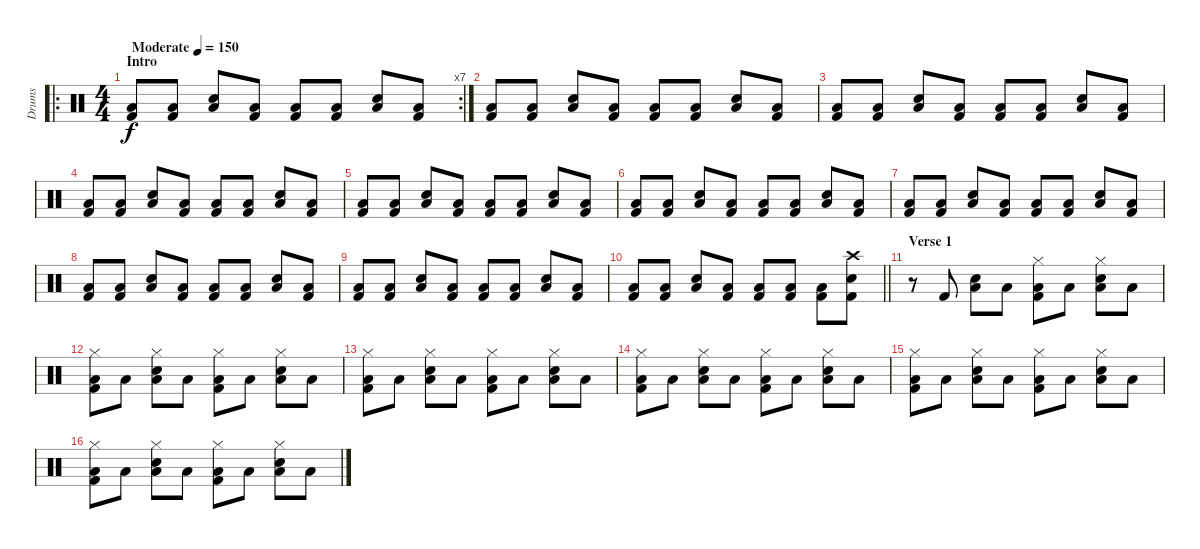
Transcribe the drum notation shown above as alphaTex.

\track ("Drums" "Drums") {instrument percussion}
\staff {score}
\articulation defaults
\ro
\rc 7
\ts (4 4)
\section ("" "Intro")
\tempo (150 "Moderate")
\clef neutral
\ks c
("Low Tom (hit)" "Kick (hit) 2").8{dy f volume 6} ("Low Tom (hit)" "Kick (hit) 2").8 ("Low Tom (hit)" "Electric Snare (hit)").8 ("Low Tom (hit)" "Kick (hit) 2").8 ("Low Tom (hit)" "Kick (hit) 2").8 ("Low Tom (hit)" "Kick (hit) 2").8 ("Low Tom (hit)" "Electric Snare (hit)").8 ("Low Tom (hit)" "Kick (hit) 2").8 |
("Low Tom (hit)" "Kick (hit) 2").8 ("Low Tom (hit)" "Kick (hit) 2").8 ("Low Tom (hit)" "Electric Snare (hit)").8 ("Low Tom (hit)" "Kick (hit) 2").8 ("Low Tom (hit)" "Kick (hit) 2").8 ("Low Tom (hit)" "Kick (hit) 2").8 ("Low Tom (hit)" "Electric Snare (hit)").8 ("Low Tom (hit)" "Kick (hit) 2").8 |
("Low Tom (hit)" "Kick (hit) 2").8 ("Low Tom (hit)" "Kick (hit) 2").8 ("Low Tom (hit)" "Electric Snare (hit)").8 ("Low Tom (hit)" "Kick (hit) 2").8 ("Low Tom (hit)" "Kick (hit) 2").8 ("Low Tom (hit)" "Kick (hit) 2").8 ("Low Tom (hit)" "Electric Snare (hit)").8 ("Low Tom (hit)" "Kick (hit) 2").8 |
("Low Tom (hit)" "Kick (hit) 2").8 ("Low Tom (hit)" "Kick (hit) 2").8 ("Low Tom (hit)" "Electric Snare (hit)").8 ("Low Tom (hit)" "Kick (hit) 2").8 ("Low Tom (hit)" "Kick (hit) 2").8 ("Low Tom (hit)" "Kick (hit) 2").8 ("Low Tom (hit)" "Electric Snare (hit)").8 ("Low Tom (hit)" "Kick (hit) 2").8 |
("Low Tom (hit)" "Kick (hit) 2").8 ("Low Tom (hit)" "Kick (hit) 2").8 ("Low Tom (hit)" "Electric Snare (hit)").8 ("Low Tom (hit)" "Kick (hit) 2").8 ("Low Tom (hit)" "Kick (hit) 2").8 ("Low Tom (hit)" "Kick (hit) 2").8 ("Low Tom (hit)" "Electric Snare (hit)").8 ("Low Tom (hit)" "Kick (hit) 2").8 |
("Low Tom (hit)" "Kick (hit) 2").8 ("Low Tom (hit)" "Kick (hit) 2").8 ("Low Tom (hit)" "Electric Snare (hit)").8 ("Low Tom (hit)" "Kick (hit) 2").8 ("Low Tom (hit)" "Kick (hit) 2").8 ("Low Tom (hit)" "Kick (hit) 2").8 ("Low Tom (hit)" "Electric Snare (hit)").8 ("Low Tom (hit)" "Kick (hit) 2").8 |
("Low Tom (hit)" "Kick (hit) 2").8 ("Low Tom (hit)" "Kick (hit) 2").8 ("Low Tom (hit)" "Electric Snare (hit)").8 ("Low Tom (hit)" "Kick (hit) 2").8 ("Low Tom (hit)" "Kick (hit) 2").8 ("Low Tom (hit)" "Kick (hit) 2").8 ("Low Tom (hit)" "Electric Snare (hit)").8 ("Low Tom (hit)" "Kick (hit) 2").8 |
("Low Tom (hit)" "Kick (hit) 2").8 ("Low Tom (hit)" "Kick (hit) 2").8 ("Low Tom (hit)" "Electric Snare (hit)").8 ("Low Tom (hit)" "Kick (hit) 2").8 ("Low Tom (hit)" "Kick (hit) 2").8 ("Low Tom (hit)" "Kick (hit) 2").8 ("Low Tom (hit)" "Electric Snare (hit)").8 ("Low Tom (hit)" "Kick (hit) 2").8 |
("Low Tom (hit)" "Kick (hit) 2").8 ("Low Tom (hit)" "Kick (hit) 2").8 ("Low Tom (hit)" "Electric Snare (hit)").8 ("Low Tom (hit)" "Kick (hit) 2").8 ("Low Tom (hit)" "Kick (hit) 2").8 ("Low Tom (hit)" "Kick (hit) 2").8 ("Low Tom (hit)" "Electric Snare (hit)").8 ("Low Tom (hit)" "Kick (hit) 2").8 |
\barLineRight lightlight
("Low Tom (hit)" "Kick (hit) 2").8 ("Low Tom (hit)" "Kick (hit) 2").8 ("Low Tom (hit)" "Electric Snare (hit)").8 ("Low Tom (hit)" "Kick (hit) 2").8 ("Low Tom (hit)" "Kick (hit) 2").8 ("Low Tom (hit)" "Kick (hit) 2").8 ("Low Tom (hit)" "Kick (hit) 2").8 ("Crash high (hit)" "Electric Snare (hit)" "Kick (hit) 2").8{volume 13} |
\section ("" "Verse 1")
r.8 "Kick (hit) 2".8 ("Low Tom (hit)" "Electric Snare (hit)").8 "Low Tom (hit)".8 ("Hi-Hat (closed)" "Low Tom (hit)" "Kick (hit) 2").8 "Low Tom (hit)".8 ("Hi-Hat (closed)" "Low Tom (hit)" "Electric Snare (hit)").8 "Low Tom (hit)".8 |
("Hi-Hat (closed)" "Low Tom (hit)" "Kick (hit) 2").8 "Low Tom (hit)".8 ("Hi-Hat (closed)" "Low Tom (hit)" "Electric Snare (hit)").8 "Low Tom (hit)".8 ("Hi-Hat (closed)" "Low Tom (hit)" "Kick (hit) 2").8 "Low Tom (hit)".8 ("Hi-Hat (closed)" "Low Tom (hit)" "Electric Snare (hit)").8 "Low Tom (hit)".8 |
("Hi-Hat (closed)" "Low Tom (hit)" "Kick (hit) 2").8 "Low Tom (hit)".8 ("Hi-Hat (closed)" "Low Tom (hit)" "Electric Snare (hit)").8 "Low Tom (hit)".8 ("Hi-Hat (closed)" "Low Tom (hit)" "Kick (hit) 2").8 "Low Tom (hit)".8 ("Hi-Hat (closed)" "Low Tom (hit)" "Electric Snare (hit)").8 "Low Tom (hit)".8 |
("Hi-Hat (closed)" "Low Tom (hit)" "Kick (hit) 2").8 "Low Tom (hit)".8 ("Hi-Hat (closed)" "Low Tom (hit)" "Electric Snare (hit)").8 "Low Tom (hit)".8 ("Hi-Hat (closed)" "Low Tom (hit)" "Kick (hit) 2").8 "Low Tom (hit)".8 ("Hi-Hat (closed)" "Low Tom (hit)" "Electric Snare (hit)").8 "Low Tom (hit)".8 |
("Hi-Hat (closed)" "Low Tom (hit)" "Kick (hit) 2").8 "Low Tom (hit)".8 ("Hi-Hat (closed)" "Low Tom (hit)" "Electric Snare (hit)").8 "Low Tom (hit)".8 ("Hi-Hat (closed)" "Low Tom (hit)" "Kick (hit) 2").8 "Low Tom (hit)".8 ("Hi-Hat (closed)" "Low Tom (hit)" "Electric Snare (hit)").8 "Low Tom (hit)".8 |
("Hi-Hat (closed)" "Low Tom (hit)" "Kick (hit) 2").8 "Low Tom (hit)".8 ("Hi-Hat (closed)" "Low Tom (hit)" "Electric Snare (hit)").8 "Low Tom (hit)".8 ("Hi-Hat (closed)" "Low Tom (hit)" "Kick (hit) 2").8 "Low Tom (hit)".8 ("Hi-Hat (closed)" "Low Tom (hit)" "Electric Snare (hit)").8 "Low Tom (hit)".8
